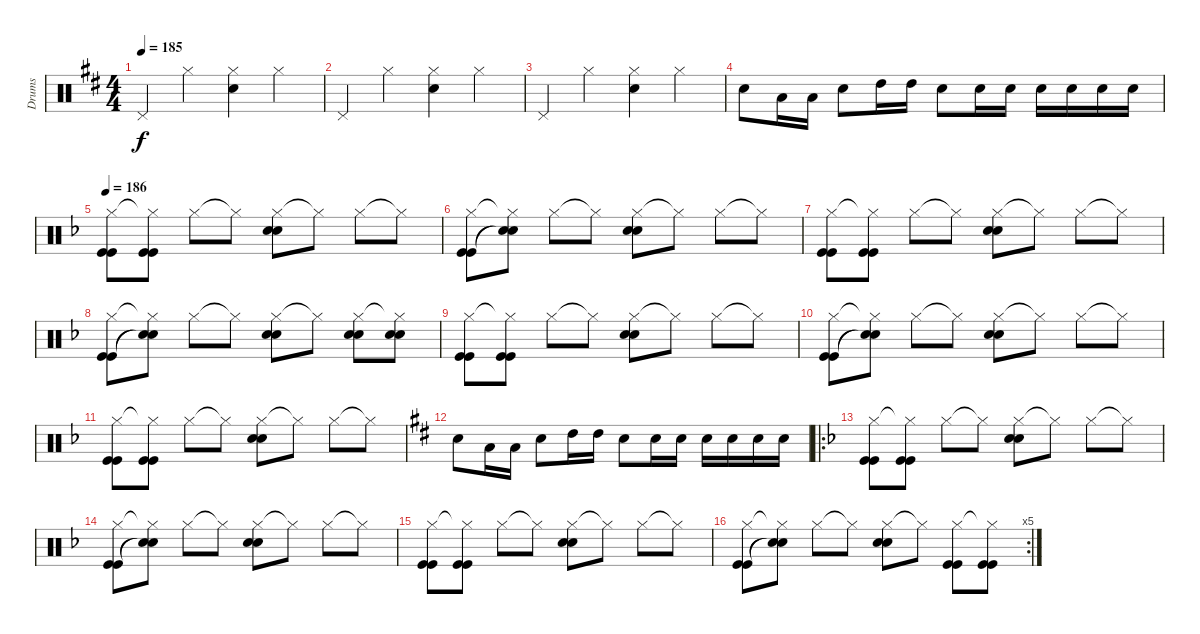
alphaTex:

\track ("Drums" "Drums") {instrument percussion}
\staff {score}
\articulation defaults
\ts (4 4)
\tempo 185
\clef neutral
\ks d "Pedal Hi-Hat (hit)".4{dy f} "Hi-Hat (closed)".4
("Hi-Hat (closed)" "Snare (hit) 2").4 "Hi-Hat (closed)".4 |
"Pedal Hi-Hat (hit)".4 "Hi-Hat (closed)".4 ("Hi-Hat (closed)" "Snare (hit) 2").4 "Hi-Hat (closed)".4 |
"Pedal Hi-Hat (hit)".4 "Hi-Hat (closed)".4 ("Hi-Hat (closed)" "Snare (hit) 2").4 "Hi-Hat (closed)".4 |
"Snare (hit) 2".8 "Low Floor Tom (hit)".16 "Low Floor Tom (hit)".16 "Snare (hit) 2".8 "High Tom (hit)".16 "High Tom (hit)".16 "Snare (hit) 2".8 "Electric Snare (hit)".16 "Electric Snare (hit)".16 "Snare (hit) 2".16 "Snare (hit) 2".16 "Snare (hit) 2".16 "Snare (hit) 2".16 |
\tempo 186
\ks f
("Hi-Hat (closed)" "Kick (hit)" "Kick (hit)").8 ("Hi-Hat (closed)"{t} "Kick (hit)" "Kick (hit)").8 "Hi-Hat (closed)".8 "Hi-Hat (closed)"{t}.8 ("Hi-Hat (closed)" "Snare (hit) 2" "Snare (hit) 2").8 "Hi-Hat (closed)"{t}.8 "Hi-Hat (closed)".8 "Hi-Hat (closed)"{t}.8 |
("Hi-Hat (closed)" "Kick (hit)" "Kick (hit)").8 ("Hi-Hat (closed)"{t} "Snare (hit)"{t} "Snare (hit)"{t}).8 "Hi-Hat (closed)".8 "Hi-Hat (closed)"{t}.8 ("Hi-Hat (closed)" "Snare (hit) 2" "Snare (hit) 2").8 "Hi-Hat (closed)"{t}.8 "Hi-Hat (closed)".8 "Hi-Hat (closed)"{t}.8 |
("Hi-Hat (closed)" "Kick (hit)" "Kick (hit)").8 ("Hi-Hat (closed)"{t} "Kick (hit)" "Kick (hit)").8 "Hi-Hat (closed)".8 "Hi-Hat (closed)"{t}.8 ("Hi-Hat (closed)" "Snare (hit) 2" "Snare (hit) 2").8 "Hi-Hat (closed)"{t}.8 "Hi-Hat (closed)".8 "Hi-Hat (closed)"{t}.8 |
("Hi-Hat (closed)" "Kick (hit)" "Kick (hit)").8 ("Hi-Hat (closed)"{t} "Snare (hit)"{t} "Snare (hit)"{t}).8 "Hi-Hat (closed)".8 "Hi-Hat (closed)"{t}.8 ("Hi-Hat (closed)" "Snare (hit) 2" "Snare (hit) 2").8 "Hi-Hat (closed)"{t}.8 ("Hi-Hat (closed)" "Electric Snare (hit)" "Electric Snare (hit)").8 ("Hi-Hat (closed)"{t} "Electric Snare (hit)" "Electric Snare (hit)").8 |
("Hi-Hat (closed)" "Kick (hit)" "Kick (hit)").8 ("Hi-Hat (closed)"{t} "Kick (hit)" "Kick (hit)").8 "Hi-Hat (closed)".8 "Hi-Hat (closed)"{t}.8 ("Hi-Hat (closed)" "Snare (hit) 2" "Snare (hit) 2").8 "Hi-Hat (closed)"{t}.8 "Hi-Hat (closed)".8 "Hi-Hat (closed)"{t}.8 |
("Hi-Hat (closed)" "Kick (hit)" "Kick (hit)").8 ("Hi-Hat (closed)"{t} "Snare (hit)"{t} "Snare (hit)"{t}).8 "Hi-Hat (closed)".8 "Hi-Hat (closed)"{t}.8 ("Hi-Hat (closed)" "Snare (hit) 2" "Snare (hit) 2").8 "Hi-Hat (closed)"{t}.8 "Hi-Hat (closed)".8 "Hi-Hat (closed)"{t}.8 |
("Hi-Hat (closed)" "Kick (hit)" "Kick (hit)").8 ("Hi-Hat (closed)"{t} "Kick (hit)" "Kick (hit)").8 "Hi-Hat (closed)".8 "Hi-Hat (closed)"{t}.8 ("Hi-Hat (closed)" "Snare (hit) 2" "Snare (hit) 2").8 "Hi-Hat (closed)"{t}.8 "Hi-Hat (closed)".8 "Hi-Hat (closed)"{t}.8 |
\ks d "Snare (hit) 2".8 "Low Floor Tom (hit)".16 "Low Floor Tom (hit)".16 "Snare (hit) 2".8 "High Tom (hit)".16 "High Tom (hit)".16 "Snare (hit) 2".8 "Electric Snare (hit)".16 "Electric Snare (hit)".16 "Snare (hit) 2".16 "Snare (hit) 2".16 "Snare (hit) 2".16 "Snare (hit) 2".16
|
\ro
\ks f
("Hi-Hat (closed)" "Kick (hit)" "Kick (hit)").8 ("Hi-Hat (closed)"{t} "Kick (hit)" "Kick (hit)").8 "Hi-Hat (closed)".8 "Hi-Hat (closed)"{t}.8 ("Hi-Hat (closed)" "Snare (hit) 2" "Snare (hit) 2").8 "Hi-Hat (closed)"{t}.8 "Hi-Hat (closed)".8 "Hi-Hat (closed)"{t}.8 |
("Hi-Hat (closed)" "Kick (hit)" "Kick (hit)").8 ("Hi-Hat (closed)"{t} "Snare (hit)"{t} "Snare (hit)"{t}).8 "Hi-Hat (closed)".8 "Hi-Hat (closed)"{t}.8 ("Hi-Hat (closed)" "Snare (hit) 2" "Snare (hit) 2").8 "Hi-Hat (closed)"{t}.8 "Hi-Hat (closed)".8 "Hi-Hat (closed)"{t}.8 |
("Hi-Hat (closed)" "Kick (hit)" "Kick (hit)").8 ("Hi-Hat (closed)"{t} "Kick (hit)" "Kick (hit)").8 "Hi-Hat (closed)".8 "Hi-Hat (closed)"{t}.8 ("Hi-Hat (closed)" "Snare (hit) 2" "Snare (hit) 2").8 "Hi-Hat (closed)"{t}.8 "Hi-Hat (closed)".8 "Hi-Hat (closed)"{t}.8 |
\rc 5
("Hi-Hat (closed)" "Kick (hit)" "Kick (hit)").8 ("Hi-Hat (closed)"{t} "Snare (hit)"{t} "Snare (hit)"{t}).8 "Hi-Hat (closed)".8 "Hi-Hat (closed)"{t}.8 ("Hi-Hat (closed)" "Snare (hit) 2" "Snare (hit) 2").8 "Hi-Hat (closed)"{t}.8 ("Hi-Hat (closed)" "Kick (hit)" "Kick (hit)").8 ("Hi-Hat (closed)"{t} "Kick (hit)" "Kick (hit)").8
